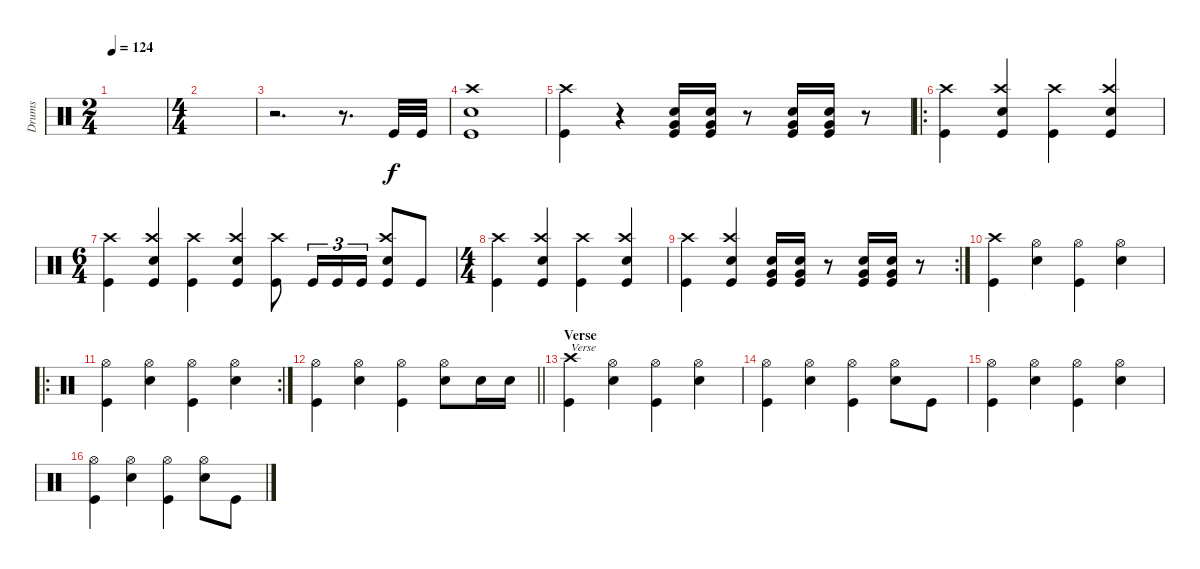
\track ("Drums" "Drums") {instrument percussion}
\staff {score}
\articulation defaults
\ts (2 4)
\tempo 124
\clef neutral
\ks c
|
\ts (4 4)
|
r.2{d} r.8{d} "Kick (hit)".32 "Kick (hit)".32 |
("Crash high (hit)" "Snare (hit) 2" "Kick (hit)").1 |
("Crash high (hit)" "Kick (hit)").4 r.4 ("Snare (hit) 2" "Very Low Tom (hit)" "Kick (hit)").16 ("Snare (hit) 2" "Very Low Tom (hit)" "Kick (hit)").16 r.8 ("Snare (hit) 2" "Very Low Tom (hit)" "Kick (hit)").16 ("Snare (hit) 2" "Very Low Tom (hit)" "Kick (hit)").16 r.8 |
\ro
("Crash high (hit)" "Kick (hit)").4 ("Crash high (hit)" "Snare (hit) 2" "Kick (hit)").4 ("Crash high (hit)" "Kick (hit)").4 ("Crash high (hit)" "Snare (hit) 2" "Kick (hit)").4 |
\ts (6 4)
("Crash high (hit)" "Kick (hit)").4 ("Crash high (hit)" "Snare (hit) 2" "Kick (hit)").4 ("Crash high (hit)" "Kick (hit)").4 ("Crash high (hit)" "Snare (hit) 2" "Kick (hit)").4 ("Crash high (hit)" "Kick (hit)").8 "Kick (hit)".16{tu (3 2)} "Kick (hit)".16{tu (3 2)} "Kick (hit)".16{tu (3 2)} ("Crash high (hit)" "Snare (hit) 2" "Kick (hit)").8 "Kick (hit)".8 |
\ts (4 4)
("Crash high (hit)" "Kick (hit)").4 ("Crash high (hit)" "Snare (hit) 2" "Kick (hit)").4 ("Crash high (hit)" "Kick (hit)").4 ("Crash high (hit)" "Snare (hit) 2" "Kick (hit)").4 |
\rc 2
("Crash high (hit)" "Kick (hit)").4 ("Crash high (hit)" "Snare (hit) 2" "Kick (hit)").4 ("Snare (hit) 2" "Very Low Tom (hit)" "Kick (hit)").16 ("Snare (hit) 2" "Very Low Tom (hit)" "Kick (hit)").16 r.8 ("Snare (hit) 2" "Very Low Tom (hit)" "Kick (hit)").16 ("Snare (hit) 2" "Very Low Tom (hit)" "Kick (hit)").16 r.8 |
("Crash high (hit)" "Kick (hit)").4 ("Hi-Hat (open)" "Snare (hit) 2").4 ("Hi-Hat (open)" "Kick (hit)").4 ("Hi-Hat (open)" "Snare (hit) 2").4 |
\ro
\rc 2
("Hi-Hat (open)" "Kick (hit)").4 ("Hi-Hat (open)" "Snare (hit) 2").4 ("Hi-Hat (open)" "Kick (hit)").4 ("Hi-Hat (open)" "Snare (hit) 2").4 |
\barLineRight lightlight
("Hi-Hat (open)" "Kick (hit)").4 ("Hi-Hat (open)" "Snare (hit) 2").4 ("Hi-Hat (open)" "Kick (hit)").4 ("Hi-Hat (open)" "Snare (hit) 2").8 "Snare (hit) 2".16 "Snare (hit) 2".16 |
\section ("" "Verse")
("Crash high (hit)" "Kick (hit)").4{txt "Verse"} ("Hi-Hat (open)" "Snare (hit) 2").4 ("Hi-Hat (open)" "Kick (hit)").4 ("Hi-Hat (open)" "Snare (hit) 2").4 |
("Hi-Hat (open)" "Kick (hit)").4 ("Hi-Hat (open)" "Snare (hit) 2").4 ("Hi-Hat (open)" "Kick (hit)").4 ("Hi-Hat (open)" "Snare (hit) 2").8 "Kick (hit)".8 |
("Hi-Hat (open)" "Kick (hit)").4 ("Hi-Hat (open)" "Snare (hit) 2").4 ("Hi-Hat (open)" "Kick (hit)").4 ("Hi-Hat (open)" "Snare (hit) 2").4 |
("Hi-Hat (open)" "Kick (hit)").4 ("Hi-Hat (open)" "Snare (hit) 2").4 ("Hi-Hat (open)" "Kick (hit)").4 ("Hi-Hat (open)" "Snare (hit) 2").8 "Kick (hit)".8
